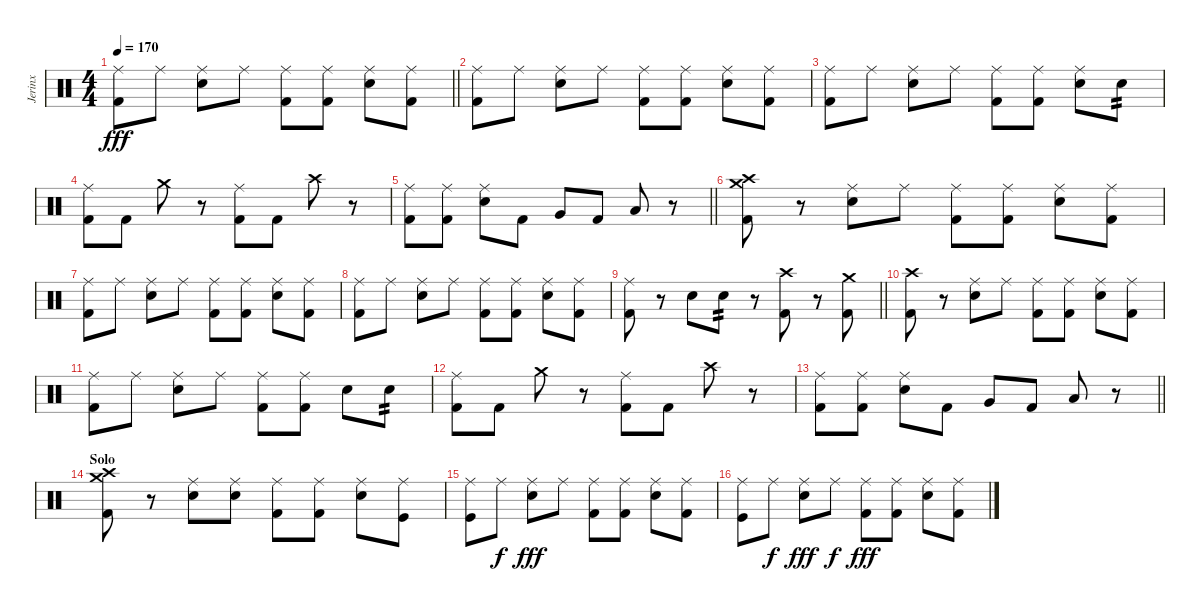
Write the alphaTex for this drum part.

\track ("Jerinx" "Jerinx") {instrument percussion}
\staff {score}
\articulation defaults
\ts (4 4)
\tempo 170
\clef neutral
\barLineRight lightlight
\ks c
("Kick (hit) 2" "Ride (middle)").8{dy fff} "Ride (middle)".8 ("Snare (hit) 2" "Ride (middle)").8 "Ride (middle)".8 ("Kick (hit) 2" "Ride (middle)").8 ("Kick (hit) 2" "Ride (middle)").8 ("Snare (hit) 2" "Ride (middle)").8 ("Kick (hit) 2" "Ride (middle)").8 |
("Kick (hit) 2" "Ride (middle)").8 "Ride (middle)".8 ("Snare (hit) 2" "Ride (middle)").8 "Ride (middle)".8 ("Kick (hit) 2" "Ride (middle)").8 ("Kick (hit) 2" "Ride (middle)").8 ("Snare (hit) 2" "Ride (middle)").8 ("Kick (hit) 2" "Ride (middle)").8 |
("Kick (hit) 2" "Ride (middle)").8 "Ride (middle)".8 ("Snare (hit) 2" "Ride (middle)").8 "Ride (middle)".8 ("Kick (hit) 2" "Ride (middle)").8 ("Kick (hit) 2" "Ride (middle)").8 ("Snare (hit) 2" "Ride (middle)").8 "Snare (hit) 2".8{tp 2} |
("Kick (hit) 2" "Ride (middle)").8 "Kick (hit) 2".8 "Crash medium (hit)".8 r.8 ("Kick (hit) 2" "Ride (middle)").8 "Kick (hit) 2".8 "Crash high (hit)".8 r.8 |
\barLineRight lightlight
("Kick (hit) 2" "Ride (middle)").8 ("Kick (hit) 2" "Ride (middle)").8 ("Snare (hit) 2" "Ride (middle)").8 "Kick (hit) 2".8 "Very Low Tom (hit)".8 "Kick (hit) 2".8 "Low Tom (hit)".8 r.8 |
("Kick (hit) 2" "Crash high (hit)" "Crash medium (hit)").8 r.8 ("Snare (hit) 2" "Ride (middle)").8 "Ride (middle)".8 ("Kick (hit) 2" "Ride (middle)").8 ("Kick (hit) 2" "Ride (middle)").8 ("Snare (hit) 2" "Ride (middle)").8 ("Kick (hit) 2" "Ride (middle)").8 |
("Kick (hit) 2" "Ride (middle)").8 "Ride (middle)".8 ("Snare (hit) 2" "Ride (middle)").8 "Ride (middle)".8 ("Kick (hit) 2" "Ride (middle)").8 ("Kick (hit) 2" "Ride (middle)").8 ("Snare (hit) 2" "Ride (middle)").8 ("Kick (hit) 2" "Ride (middle)").8 |
("Kick (hit) 2" "Ride (middle)").8 "Ride (middle)".8 ("Snare (hit) 2" "Ride (middle)").8 "Ride (middle)".8 ("Kick (hit) 2" "Ride (middle)").8 ("Kick (hit) 2" "Ride (middle)").8 ("Snare (hit) 2" "Ride (middle)").8 ("Kick (hit) 2" "Ride (middle)").8 |
\barLineRight lightlight
("Kick (hit) 2" "Ride (middle)").8 r.8 "Snare (hit) 2".8 "Snare (hit) 2".8{tp 2} r.8 ("Kick (hit) 2" "Crash high (hit)").8 r.8 ("Kick (hit) 2" "Crash medium (hit)").8 |
("Kick (hit) 2" "Crash high (hit)").8 r.8 ("Snare (hit) 2" "Ride (middle)").8 "Ride (middle)".8 ("Kick (hit) 2" "Ride (middle)").8 ("Kick (hit) 2" "Ride (middle)").8 ("Snare (hit) 2" "Ride (middle)").8 ("Kick (hit) 2" "Ride (middle)").8 |
("Kick (hit) 2" "Ride (middle)").8 "Ride (middle)".8 ("Snare (hit) 2" "Ride (middle)").8 "Ride (middle)".8 ("Kick (hit) 2" "Ride (middle)").8 ("Kick (hit) 2" "Ride (middle)").8 "Snare (hit) 2".8 "Snare (hit) 2".8{tp 2} |
("Kick (hit) 2" "Ride (middle)").8 "Kick (hit) 2".8 "Crash medium (hit)".8 r.8 ("Kick (hit) 2" "Ride (middle)").8 "Kick (hit) 2".8 "Crash high (hit)".8 r.8 |
\barLineRight lightlight
("Kick (hit) 2" "Ride (middle)").8 ("Kick (hit) 2" "Ride (middle)").8 ("Snare (hit) 2" "Ride (middle)").8 "Kick (hit) 2".8 "Very Low Tom (hit)".8 "Kick (hit) 2".8 "Low Tom (hit)".8 r.8 |
\section ("" "Solo")
("Kick (hit) 2" "Crash medium (hit)" "Crash high (hit)").8 r.8 ("Snare (hit) 2" "Ride (middle)").8 ("Snare (hit) 2" "Ride (middle)").8 ("Kick (hit) 2" "Ride (middle)").8 ("Kick (hit) 2" "Ride (middle)").8 ("Snare (hit) 2" "Ride (middle)").8 ("Kick (hit)" "Ride (middle)").8 |
("Kick (hit)" "Ride (middle)").8 "Ride (middle)".8{dy f} ("Snare (hit) 2" "Ride (middle)").8{dy fff} "Ride (middle)".8 ("Kick (hit) 2" "Ride (middle)").8 ("Kick (hit) 2" "Ride (middle)").8 ("Snare (hit) 2" "Ride (middle)").8 ("Kick (hit) 2" "Ride (middle)").8 |
("Kick (hit)" "Ride (middle)").8 "Ride (middle)".8{dy f} ("Snare (hit) 2" "Ride (middle)").8{dy fff} "Ride (middle)".8{dy f} ("Kick (hit) 2" "Ride (middle)").8{dy fff} ("Kick (hit) 2" "Ride (middle)").8 ("Snare (hit) 2" "Ride (middle)").8 ("Kick (hit) 2" "Ride (middle)").8
